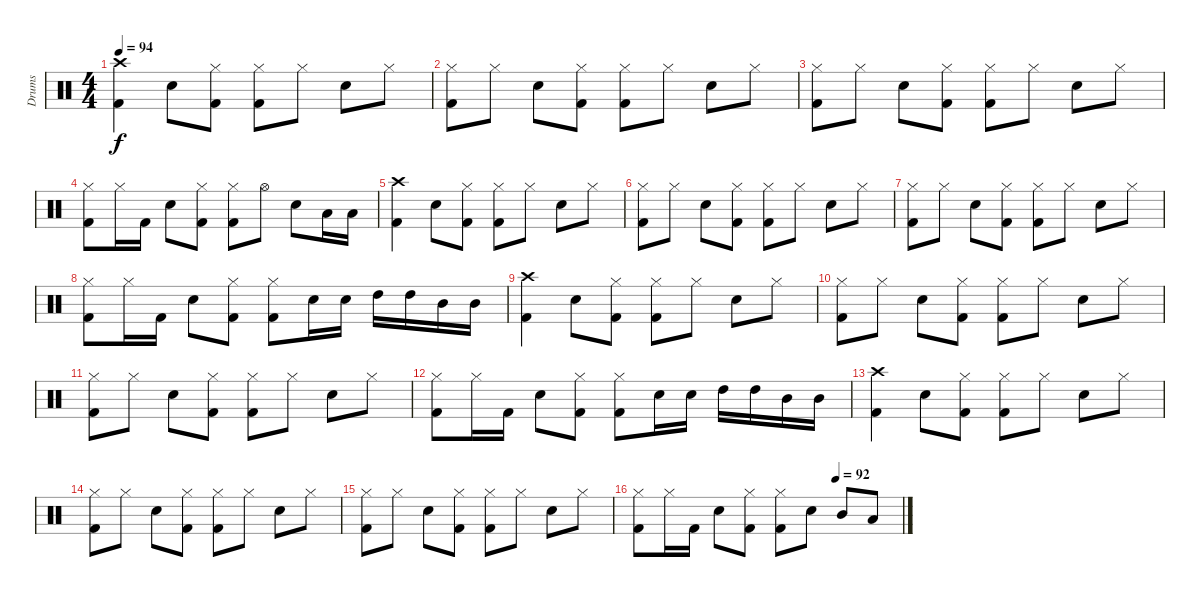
\track ("Drums" "Drums") {instrument percussion}
\staff {score}
\articulation defaults
\ts (4 4)
\tempo 94
\clef neutral
\ks c
("Crash high (hit)" "Kick (hit) 2").4{dy f} "Snare (hit) 2".8 ("Hi-Hat (closed)" "Kick (hit) 2").8 ("Hi-Hat (closed)" "Kick (hit) 2").8 "Hi-Hat (closed)".8 "Snare (hit) 2".8 "Hi-Hat (closed)".8 |
("Hi-Hat (closed)" "Kick (hit) 2").8 "Hi-Hat (closed)".8 "Snare (hit) 2".8 ("Hi-Hat (closed)" "Kick (hit) 2").8 ("Hi-Hat (closed)" "Kick (hit) 2").8 "Hi-Hat (closed)".8 "Snare (hit) 2".8 "Hi-Hat (closed)".8 |
("Hi-Hat (closed)" "Kick (hit) 2").8 "Hi-Hat (closed)".8 "Snare (hit) 2".8 ("Hi-Hat (closed)" "Kick (hit) 2").8 ("Hi-Hat (closed)" "Kick (hit) 2").8 "Hi-Hat (closed)".8 "Snare (hit) 2".8 "Hi-Hat (closed)".8 |
("Hi-Hat (closed)" "Kick (hit) 2").8 "Hi-Hat (closed)".16 "Kick (hit) 2".16 "Snare (hit) 2".8 ("Hi-Hat (closed)" "Kick (hit) 2").8 ("Hi-Hat (closed)" "Kick (hit) 2").8 "Hi-Hat (open)".8 "Snare (hit) 2".8 "Low Tom (hit)".16 "Low Tom (hit)".16 |
("Crash high (hit)" "Kick (hit) 2").4 "Snare (hit) 2".8 ("Hi-Hat (closed)" "Kick (hit) 2").8 ("Hi-Hat (closed)" "Kick (hit) 2").8 "Hi-Hat (closed)".8 "Snare (hit) 2".8 "Hi-Hat (closed)".8 |
("Hi-Hat (closed)" "Kick (hit) 2").8 "Hi-Hat (closed)".8 "Snare (hit) 2".8 ("Hi-Hat (closed)" "Kick (hit) 2").8 ("Hi-Hat (closed)" "Kick (hit) 2").8 "Hi-Hat (closed)".8 "Snare (hit) 2".8 "Hi-Hat (closed)".8 |
("Hi-Hat (closed)" "Kick (hit) 2").8 "Hi-Hat (closed)".8 "Snare (hit) 2".8 ("Hi-Hat (closed)" "Kick (hit) 2").8 ("Hi-Hat (closed)" "Kick (hit) 2").8 "Hi-Hat (closed)".8 "Snare (hit) 2".8 "Hi-Hat (closed)".8 |
("Hi-Hat (closed)" "Kick (hit) 2").8 "Hi-Hat (closed)".16 "Kick (hit) 2".16 "Snare (hit) 2".8 ("Hi-Hat (closed)" "Kick (hit) 2").8 ("Hi-Hat (closed)" "Kick (hit) 2").8 "Snare (hit) 2".16 "Snare (hit) 2".16 "High Tom (hit)".16 "High Tom (hit)".16 "Mid Tom (hit)".16 "Mid Tom (hit)".16 |
("Crash high (hit)" "Kick (hit) 2").4 "Snare (hit) 2".8 ("Hi-Hat (closed)" "Kick (hit) 2").8 ("Hi-Hat (closed)" "Kick (hit) 2").8 "Hi-Hat (closed)".8 "Snare (hit) 2".8 "Hi-Hat (closed)".8 |
("Hi-Hat (closed)" "Kick (hit) 2").8 "Hi-Hat (closed)".8 "Snare (hit) 2".8 ("Hi-Hat (closed)" "Kick (hit) 2").8 ("Hi-Hat (closed)" "Kick (hit) 2").8 "Hi-Hat (closed)".8 "Snare (hit) 2".8 "Hi-Hat (closed)".8 |
("Hi-Hat (closed)" "Kick (hit) 2").8 "Hi-Hat (closed)".8 "Snare (hit) 2".8 ("Hi-Hat (closed)" "Kick (hit) 2").8 ("Hi-Hat (closed)" "Kick (hit) 2").8 "Hi-Hat (closed)".8 "Snare (hit) 2".8 "Hi-Hat (closed)".8 |
("Hi-Hat (closed)" "Kick (hit) 2").8 "Hi-Hat (closed)".16 "Kick (hit) 2".16 "Snare (hit) 2".8 ("Hi-Hat (closed)" "Kick (hit) 2").8 ("Hi-Hat (closed)" "Kick (hit) 2").8 "Snare (hit) 2".16 "Snare (hit) 2".16 "High Tom (hit)".16 "High Tom (hit)".16 "Mid Tom (hit)".16 "Mid Tom (hit)".16 |
("Crash high (hit)" "Kick (hit) 2").4 "Snare (hit) 2".8 ("Hi-Hat (closed)" "Kick (hit) 2").8 ("Hi-Hat (closed)" "Kick (hit) 2").8 "Hi-Hat (closed)".8 "Snare (hit) 2".8 "Hi-Hat (closed)".8 |
("Hi-Hat (closed)" "Kick (hit) 2").8 "Hi-Hat (closed)".8 "Snare (hit) 2".8 ("Hi-Hat (closed)" "Kick (hit) 2").8 ("Hi-Hat (closed)" "Kick (hit) 2").8 "Hi-Hat (closed)".8 "Snare (hit) 2".8 "Hi-Hat (closed)".8 |
("Hi-Hat (closed)" "Kick (hit) 2").8 "Hi-Hat (closed)".8 "Snare (hit) 2".8 ("Hi-Hat (closed)" "Kick (hit) 2").8 ("Hi-Hat (closed)" "Kick (hit) 2").8 "Hi-Hat (closed)".8 "Snare (hit) 2".8 "Hi-Hat (closed)".8 |
\tempo (92 0.75)
("Hi-Hat (closed)" "Kick (hit) 2").8 "Hi-Hat (closed)".16 "Kick (hit) 2".16 "Snare (hit) 2".8 ("Hi-Hat (closed)" "Kick (hit) 2").8 ("Hi-Hat (closed)" "Kick (hit) 2").8 "Snare (hit) 2".8 "Mid Tom (hit)".8 "Low Tom (hit)".8
